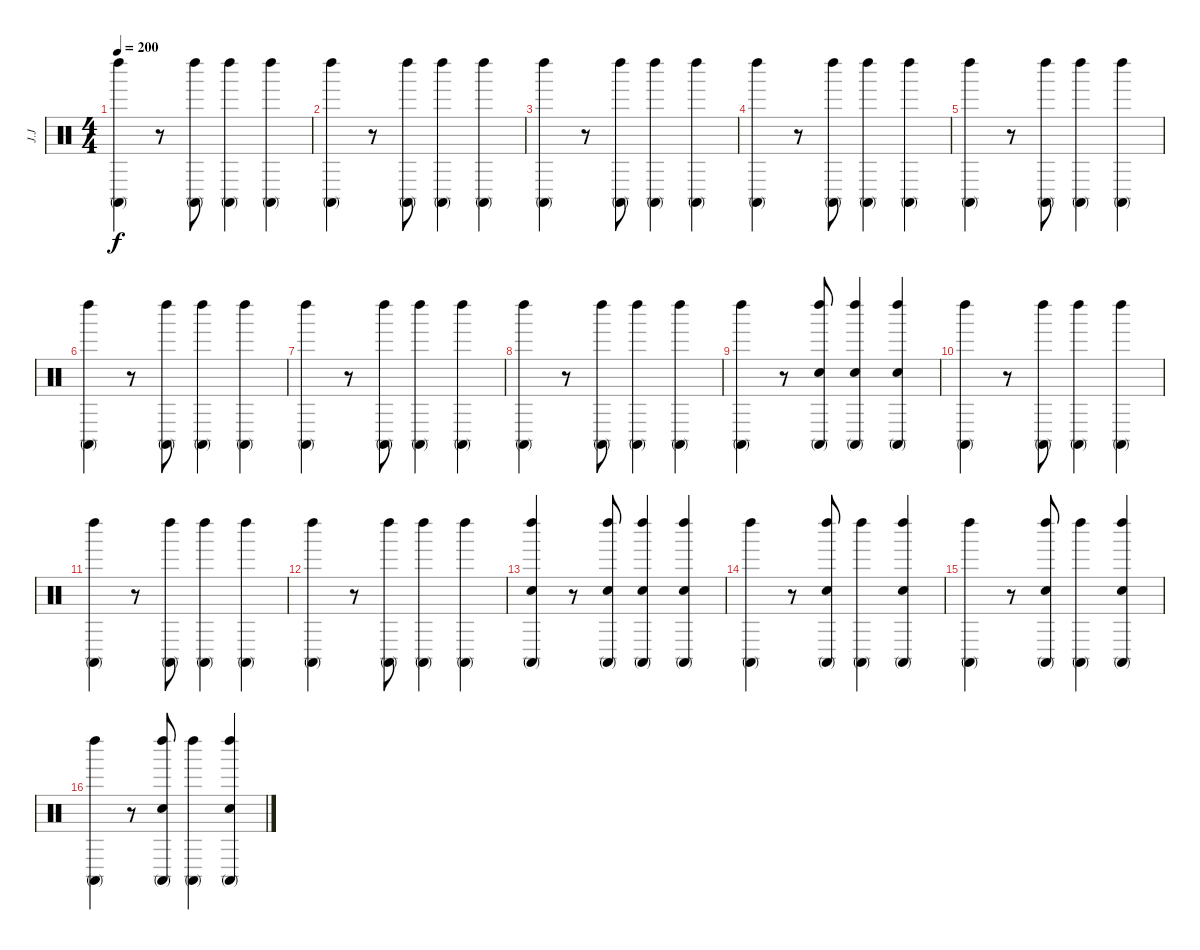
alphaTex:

\track ("J.J" "J.J") {instrument percussion}
\staff {score}
\articulation defaults
\ts (4 4)
\tempo 200
\clef neutral
\ks c
("Conga high (mute)" "Left Maraca (hit)").4{dy f} r.8 ("Conga high (mute)" "Left Maraca (hit)").8 ("Conga high (mute)" "Left Maraca (hit)").4 ("Conga high (mute)" "Left Maraca (hit)").4 |
("Conga high (mute)" "Left Maraca (hit)").4 r.8 ("Conga high (mute)" "Left Maraca (hit)").8 ("Conga high (mute)" "Left Maraca (hit)").4 ("Conga high (mute)" "Left Maraca (hit)").4 |
("Conga high (mute)" "Left Maraca (hit)").4 r.8 ("Conga high (mute)" "Left Maraca (hit)").8 ("Conga high (mute)" "Left Maraca (hit)").4 ("Conga high (mute)" "Left Maraca (hit)").4 |
("Conga high (mute)" "Left Maraca (hit)").4 r.8 ("Conga high (mute)" "Left Maraca (hit)").8 ("Conga high (mute)" "Left Maraca (hit)").4 ("Conga high (mute)" "Left Maraca (hit)").4 |
("Conga high (mute)" "Left Maraca (hit)").4 r.8 ("Conga high (mute)" "Left Maraca (hit)").8 ("Conga high (mute)" "Left Maraca (hit)").4 ("Conga high (mute)" "Left Maraca (hit)").4 |
("Conga high (mute)" "Left Maraca (hit)").4 r.8 ("Conga high (mute)" "Left Maraca (hit)").8 ("Conga high (mute)" "Left Maraca (hit)").4 ("Conga high (mute)" "Left Maraca (hit)").4 |
("Conga high (mute)" "Left Maraca (hit)").4 r.8 ("Conga high (mute)" "Left Maraca (hit)").8 ("Conga high (mute)" "Left Maraca (hit)").4 ("Conga high (mute)" "Left Maraca (hit)").4 |
("Conga high (mute)" "Left Maraca (hit)").4 r.8 ("Conga high (mute)" "Left Maraca (hit)").8 ("Conga high (mute)" "Left Maraca (hit)").4 ("Conga high (mute)" "Left Maraca (hit)").4 |
("Conga high (mute)" "Left Maraca (hit)").4 r.8 ("Conga high (mute)" "Left Maraca (hit)" "Snare (hit) 2").8 ("Conga high (mute)" "Left Maraca (hit)" "Snare (hit) 2").4 ("Conga high (mute)" "Left Maraca (hit)" "Snare (hit) 2").4 |
("Conga high (mute)" "Left Maraca (hit)").4 r.8 ("Conga high (mute)" "Left Maraca (hit)").8 ("Conga high (mute)" "Left Maraca (hit)").4 ("Conga high (mute)" "Left Maraca (hit)").4 |
("Conga high (mute)" "Left Maraca (hit)").4 r.8 ("Conga high (mute)" "Left Maraca (hit)").8 ("Conga high (mute)" "Left Maraca (hit)").4 ("Conga high (mute)" "Left Maraca (hit)").4 |
("Conga high (mute)" "Left Maraca (hit)").4 r.8 ("Conga high (mute)" "Left Maraca (hit)").8 ("Conga high (mute)" "Left Maraca (hit)").4 ("Conga high (mute)" "Left Maraca (hit)").4 |
("Conga high (mute)" "Left Maraca (hit)" "Snare (hit) 2").4 r.8 ("Conga high (mute)" "Left Maraca (hit)" "Snare (hit) 2").8 ("Conga high (mute)" "Left Maraca (hit)" "Snare (hit) 2").4 ("Conga high (mute)" "Left Maraca (hit)" "Snare (hit) 2").4 |
("Conga high (mute)" "Left Maraca (hit)").4 r.8 ("Conga high (mute)" "Left Maraca (hit)" "Snare (hit) 2").8 ("Conga high (mute)" "Left Maraca (hit)").4 ("Conga high (mute)" "Left Maraca (hit)" "Snare (hit) 2").4 |
("Conga high (mute)" "Left Maraca (hit)").4 r.8 ("Conga high (mute)" "Left Maraca (hit)" "Snare (hit) 2").8 ("Conga high (mute)" "Left Maraca (hit)").4 ("Conga high (mute)" "Left Maraca (hit)" "Snare (hit) 2").4 |
("Conga high (mute)" "Left Maraca (hit)").4 r.8 ("Conga high (mute)" "Left Maraca (hit)" "Snare (hit) 2").8 ("Conga high (mute)" "Left Maraca (hit)").4 ("Conga high (mute)" "Left Maraca (hit)" "Snare (hit) 2").4
